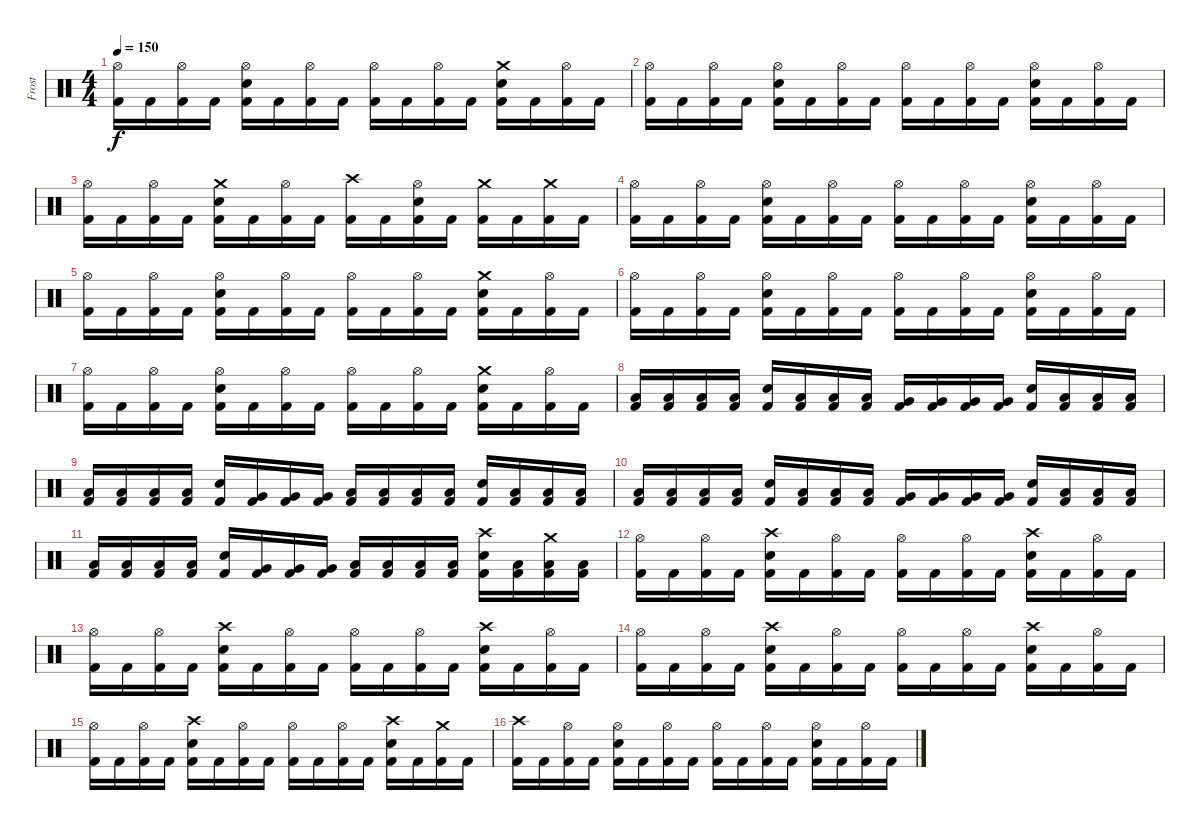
\track ("Frost" "Frost") {instrument percussion}
\staff {score}
\articulation defaults
\ts (4 4)
\tempo 150
\clef neutral
\ks c
("Hi-Hat (open)" "Kick (hit) 2").16{dy f} "Kick (hit) 2".16 ("Hi-Hat (open)" "Kick (hit) 2").16 "Kick (hit) 2".16 ("Hi-Hat (open)" "Snare (hit) 2" "Kick (hit) 2").16 "Kick (hit) 2".16 ("Hi-Hat (open)" "Kick (hit) 2").16 "Kick (hit) 2".16 ("Hi-Hat (open)" "Kick (hit) 2").16 "Kick (hit) 2".16 ("Hi-Hat (open)" "Kick (hit) 2").16 "Kick (hit) 2".16 ("Crash medium (hit)" "Snare (hit) 2" "Kick (hit) 2").16 "Kick (hit) 2".16 ("Hi-Hat (open)" "Kick (hit) 2").16 "Kick (hit) 2".16 |
("Hi-Hat (open)" "Kick (hit) 2").16 "Kick (hit) 2".16 ("Hi-Hat (open)" "Kick (hit) 2").16 "Kick (hit) 2".16 ("Hi-Hat (open)" "Snare (hit) 2" "Kick (hit) 2").16 "Kick (hit) 2".16 ("Hi-Hat (open)" "Kick (hit) 2").16 "Kick (hit) 2".16 ("Hi-Hat (open)" "Kick (hit) 2").16 "Kick (hit) 2".16 ("Hi-Hat (open)" "Kick (hit) 2").16 "Kick (hit) 2".16 ("Hi-Hat (open)" "Snare (hit) 2" "Kick (hit) 2").16 "Kick (hit) 2".16 ("Hi-Hat (open)" "Kick (hit) 2").16 "Kick (hit) 2".16 |
("Hi-Hat (open)" "Kick (hit) 2").16 "Kick (hit) 2".16 ("Hi-Hat (open)" "Kick (hit) 2").16 "Kick (hit) 2".16 ("Crash medium (hit)" "Snare (hit) 2" "Kick (hit) 2").16 "Kick (hit) 2".16 ("Hi-Hat (open)" "Kick (hit) 2").16 "Kick (hit) 2".16 ("Crash high (hit)" "Kick (hit) 2").16 "Kick (hit) 2".16 ("Hi-Hat (open)" "Snare (hit) 2" "Kick (hit) 2").16 "Kick (hit) 2".16 ("Crash medium (hit)" "Kick (hit) 2").16 "Kick (hit) 2".16 ("Crash medium (hit)" "Kick (hit) 2").16 "Kick (hit) 2".16 |
("Hi-Hat (open)" "Kick (hit) 2").16 "Kick (hit) 2".16 ("Hi-Hat (open)" "Kick (hit) 2").16 "Kick (hit) 2".16 ("Hi-Hat (open)" "Snare (hit) 2" "Kick (hit) 2").16 "Kick (hit) 2".16 ("Hi-Hat (open)" "Kick (hit) 2").16 "Kick (hit) 2".16 ("Hi-Hat (open)" "Kick (hit) 2").16 "Kick (hit) 2".16 ("Hi-Hat (open)" "Kick (hit) 2").16 "Kick (hit) 2".16 ("Hi-Hat (open)" "Snare (hit) 2" "Kick (hit) 2").16 "Kick (hit) 2".16 ("Hi-Hat (open)" "Kick (hit) 2").16 "Kick (hit) 2".16 |
("Hi-Hat (open)" "Kick (hit) 2").16 "Kick (hit) 2".16 ("Hi-Hat (open)" "Kick (hit) 2").16 "Kick (hit) 2".16 ("Hi-Hat (open)" "Snare (hit) 2" "Kick (hit) 2").16 "Kick (hit) 2".16 ("Hi-Hat (open)" "Kick (hit) 2").16 "Kick (hit) 2".16 ("Hi-Hat (open)" "Kick (hit) 2").16 "Kick (hit) 2".16 ("Hi-Hat (open)" "Kick (hit) 2").16 "Kick (hit) 2".16 ("Crash medium (hit)" "Snare (hit) 2" "Kick (hit) 2").16 "Kick (hit) 2".16 ("Hi-Hat (open)" "Kick (hit) 2").16 "Kick (hit) 2".16 |
("Hi-Hat (open)" "Kick (hit) 2").16 "Kick (hit) 2".16 ("Hi-Hat (open)" "Kick (hit) 2").16 "Kick (hit) 2".16 ("Hi-Hat (open)" "Snare (hit) 2" "Kick (hit) 2").16 "Kick (hit) 2".16 ("Hi-Hat (open)" "Kick (hit) 2").16 "Kick (hit) 2".16 ("Hi-Hat (open)" "Kick (hit) 2").16 "Kick (hit) 2".16 ("Hi-Hat (open)" "Kick (hit) 2").16 "Kick (hit) 2".16 ("Hi-Hat (open)" "Snare (hit) 2" "Kick (hit) 2").16 "Kick (hit) 2".16 ("Hi-Hat (open)" "Kick (hit) 2").16 "Kick (hit) 2".16 |
("Hi-Hat (open)" "Kick (hit) 2").16 "Kick (hit) 2".16 ("Hi-Hat (open)" "Kick (hit) 2").16 "Kick (hit) 2".16 ("Hi-Hat (open)" "Snare (hit) 2" "Kick (hit) 2").16 "Kick (hit) 2".16 ("Hi-Hat (open)" "Kick (hit) 2").16 "Kick (hit) 2".16 ("Hi-Hat (open)" "Kick (hit) 2").16 "Kick (hit) 2".16 ("Hi-Hat (open)" "Kick (hit) 2").16 "Kick (hit) 2".16 ("Crash medium (hit)" "Snare (hit) 2" "Kick (hit) 2").16 "Kick (hit) 2".16 ("Hi-Hat (open)" "Kick (hit) 2").16 "Kick (hit) 2".16 |
("Low Tom (hit)" "Kick (hit) 2").16 ("Low Tom (hit)" "Kick (hit) 2").16 ("Low Tom (hit)" "Kick (hit) 2").16 ("Low Tom (hit)" "Kick (hit) 2").16 ("Snare (hit) 2" "Kick (hit) 2").16 ("Low Tom (hit)" "Kick (hit) 2").16 ("Low Tom (hit)" "Kick (hit) 2").16 ("Low Tom (hit)" "Kick (hit) 2").16 ("Very Low Tom (hit)" "Kick (hit) 2").16 ("Very Low Tom (hit)" "Kick (hit) 2").16 ("Very Low Tom (hit)" "Kick (hit) 2").16 ("Very Low Tom (hit)" "Kick (hit) 2").16 ("Snare (hit) 2" "Kick (hit) 2").16 ("Low Tom (hit)" "Kick (hit) 2").16 ("Low Tom (hit)" "Kick (hit) 2").16 ("Low Tom (hit)" "Kick (hit) 2").16 |
("Low Tom (hit)" "Kick (hit) 2").16 ("Low Tom (hit)" "Kick (hit) 2").16 ("Low Tom (hit)" "Kick (hit) 2").16 ("Low Tom (hit)" "Kick (hit) 2").16 ("Snare (hit) 2" "Kick (hit) 2").16 ("Very Low Tom (hit)" "Kick (hit) 2").16 ("Very Low Tom (hit)" "Kick (hit) 2").16 ("Very Low Tom (hit)" "Kick (hit) 2").16 ("Low Floor Tom (hit)" "Kick (hit) 2").16 ("Low Floor Tom (hit)" "Kick (hit) 2").16 ("Low Floor Tom (hit)" "Kick (hit) 2").16 ("Low Floor Tom (hit)" "Kick (hit) 2").16 ("Snare (hit) 2" "Kick (hit) 2").16 ("Low Tom (hit)" "Kick (hit) 2").16 ("Low Tom (hit)" "Kick (hit) 2").16 ("Low Tom (hit)" "Kick (hit) 2").16 |
("Low Tom (hit)" "Kick (hit) 2").16 ("Low Tom (hit)" "Kick (hit) 2").16 ("Low Tom (hit)" "Kick (hit) 2").16 ("Low Tom (hit)" "Kick (hit) 2").16 ("Snare (hit) 2" "Kick (hit) 2").16 ("Low Tom (hit)" "Kick (hit) 2").16 ("Low Tom (hit)" "Kick (hit) 2").16 ("Low Tom (hit)" "Kick (hit) 2").16 ("Very Low Tom (hit)" "Kick (hit) 2").16 ("Very Low Tom (hit)" "Kick (hit) 2").16 ("Very Low Tom (hit)" "Kick (hit) 2").16 ("Very Low Tom (hit)" "Kick (hit) 2").16 ("Snare (hit) 2" "Kick (hit) 2").16 ("Low Tom (hit)" "Kick (hit) 2").16 ("Low Tom (hit)" "Kick (hit) 2").16 ("Low Tom (hit)" "Kick (hit) 2").16 |
("Low Tom (hit)" "Kick (hit) 2").16 ("Low Tom (hit)" "Kick (hit) 2").16 ("Low Tom (hit)" "Kick (hit) 2").16 ("Low Tom (hit)" "Kick (hit) 2").16 ("Snare (hit) 2" "Kick (hit) 2").16 ("Very Low Tom (hit)" "Kick (hit) 2").16 ("Very Low Tom (hit)" "Kick (hit) 2").16 ("Very Low Tom (hit)" "Kick (hit) 2").16 ("Low Floor Tom (hit)" "Kick (hit) 2").16 ("Low Floor Tom (hit)" "Kick (hit) 2").16 ("Low Floor Tom (hit)" "Kick (hit) 2").16 ("Low Floor Tom (hit)" "Kick (hit) 2").16 ("Crash high (hit)" "Snare (hit) 2" "Kick (hit) 2").16 ("Low Tom (hit)" "Kick (hit) 2").16 ("Crash medium (hit)" "Low Tom (hit)" "Kick (hit) 2").16 ("Low Tom (hit)" "Kick (hit) 2").16 |
("Hi-Hat (open)" "Kick (hit) 2").16 "Kick (hit) 2".16 ("Hi-Hat (open)" "Kick (hit) 2").16 "Kick (hit) 2".16 ("Crash high (hit)" "Snare (hit) 2" "Kick (hit) 2").16 "Kick (hit) 2".16 ("Hi-Hat (open)" "Kick (hit) 2").16 "Kick (hit) 2".16 ("Hi-Hat (open)" "Kick (hit) 2").16 "Kick (hit) 2".16 ("Hi-Hat (open)" "Kick (hit) 2").16 "Kick (hit) 2".16 ("Crash high (hit)" "Snare (hit) 2" "Kick (hit) 2").16 "Kick (hit) 2".16 ("Hi-Hat (open)" "Kick (hit) 2").16 "Kick (hit) 2".16 |
("Hi-Hat (open)" "Kick (hit) 2").16 "Kick (hit) 2".16 ("Hi-Hat (open)" "Kick (hit) 2").16 "Kick (hit) 2".16 ("Crash high (hit)" "Snare (hit) 2" "Kick (hit) 2").16 "Kick (hit) 2".16 ("Hi-Hat (open)" "Kick (hit) 2").16 "Kick (hit) 2".16 ("Hi-Hat (open)" "Kick (hit) 2").16 "Kick (hit) 2".16 ("Hi-Hat (open)" "Kick (hit) 2").16 "Kick (hit) 2".16 ("Crash high (hit)" "Snare (hit) 2" "Kick (hit) 2").16 "Kick (hit) 2".16 ("Hi-Hat (open)" "Kick (hit) 2").16 "Kick (hit) 2".16 |
("Hi-Hat (open)" "Kick (hit) 2").16 "Kick (hit) 2".16 ("Hi-Hat (open)" "Kick (hit) 2").16 "Kick (hit) 2".16 ("Crash high (hit)" "Snare (hit) 2" "Kick (hit) 2").16 "Kick (hit) 2".16 ("Hi-Hat (open)" "Kick (hit) 2").16 "Kick (hit) 2".16 ("Hi-Hat (open)" "Kick (hit) 2").16 "Kick (hit) 2".16 ("Hi-Hat (open)" "Kick (hit) 2").16 "Kick (hit) 2".16 ("Crash high (hit)" "Snare (hit) 2" "Kick (hit) 2").16 "Kick (hit) 2".16 ("Hi-Hat (open)" "Kick (hit) 2").16 "Kick (hit) 2".16 |
("Hi-Hat (open)" "Kick (hit) 2").16 "Kick (hit) 2".16 ("Hi-Hat (open)" "Kick (hit) 2").16 "Kick (hit) 2".16 ("Crash high (hit)" "Snare (hit) 2" "Kick (hit) 2").16 "Kick (hit) 2".16 ("Hi-Hat (open)" "Kick (hit) 2").16 "Kick (hit) 2".16 ("Hi-Hat (open)" "Kick (hit) 2").16 "Kick (hit) 2".16 ("Hi-Hat (open)" "Kick (hit) 2").16 "Kick (hit) 2".16 ("Crash high (hit)" "Snare (hit) 2" "Kick (hit) 2").16 "Kick (hit) 2".16 ("Crash medium (hit)" "Kick (hit) 2").16 "Kick (hit) 2".16 |
("Crash high (hit)" "Kick (hit) 2").16 "Kick (hit) 2".16 ("Hi-Hat (open)" "Kick (hit) 2").16 "Kick (hit) 2".16 ("Hi-Hat (open)" "Snare (hit) 2" "Kick (hit) 2").16 "Kick (hit) 2".16 ("Hi-Hat (open)" "Kick (hit) 2").16 "Kick (hit) 2".16 ("Hi-Hat (open)" "Kick (hit) 2").16 "Kick (hit) 2".16 ("Hi-Hat (open)" "Kick (hit) 2").16 "Kick (hit) 2".16 ("Hi-Hat (open)" "Snare (hit) 2" "Kick (hit) 2").16 "Kick (hit) 2".16 ("Hi-Hat (open)" "Kick (hit) 2").16 "Kick (hit) 2".16
